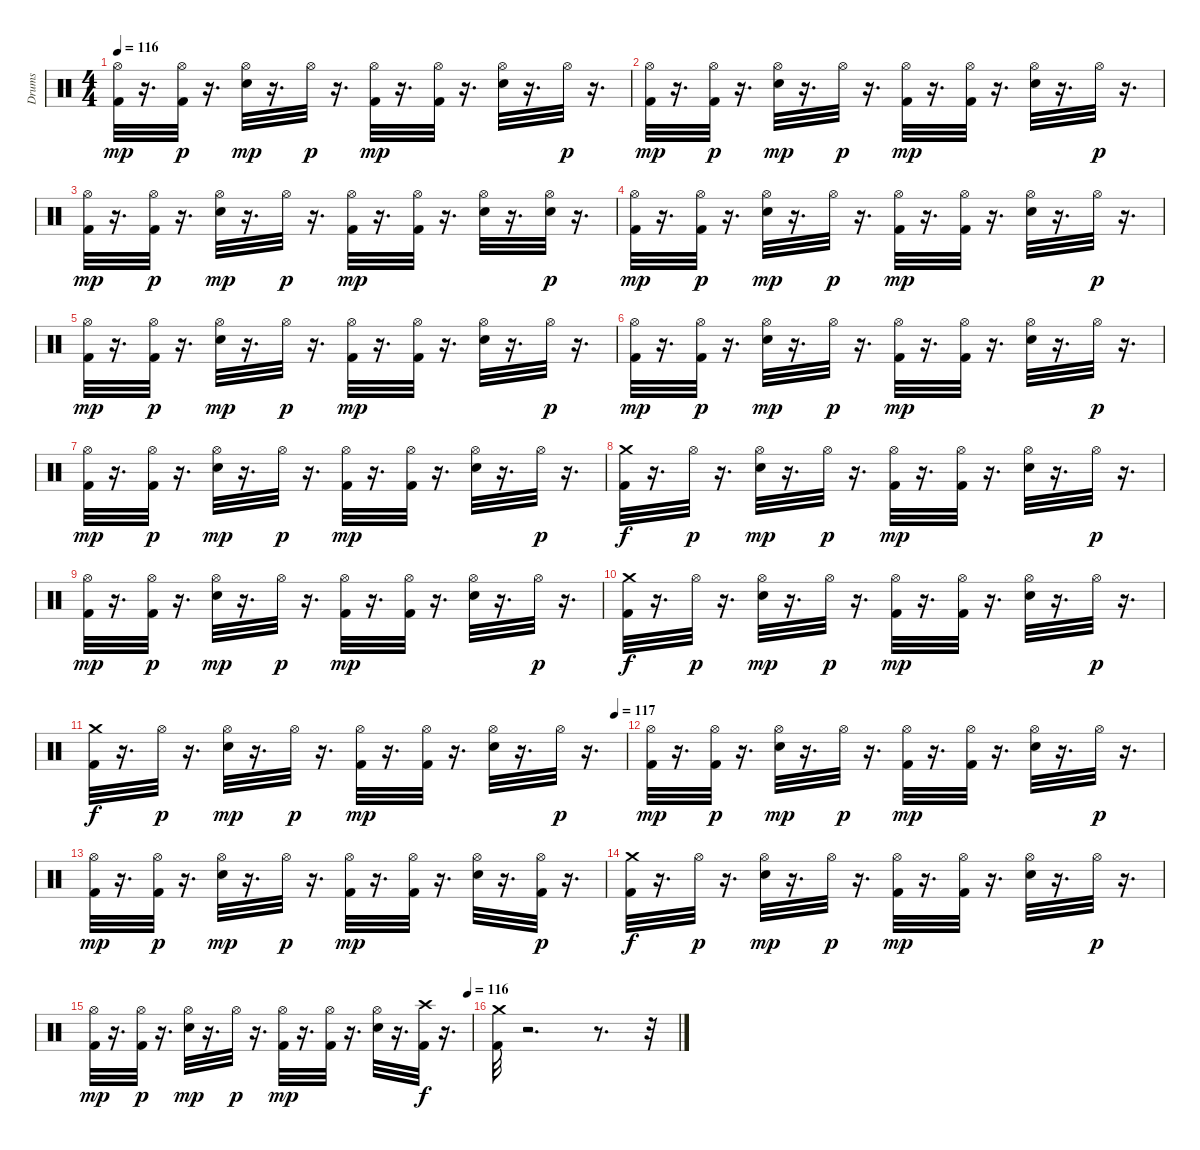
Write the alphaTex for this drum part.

\track ("Drums" "Drums") {instrument percussion}
\staff {score}
\articulation defaults
\ts (4 4)
\tempo 116
\clef neutral
\ks c
("Kick (hit) 2" "Hi-Hat (open)").32{dy mp} r.16{d} ("Kick (hit) 2" "Hi-Hat (open)").32{dy p} r.16{d} ("Hi-Hat (open)" "Snare (hit) 2").32{dy mp} r.16{d} "Hi-Hat (open)".32{dy p} r.16{d} ("Kick (hit) 2" "Hi-Hat (open)").32{dy mp} r.16{d} ("Hi-Hat (open)" "Kick (hit) 2").32 r.16{d} ("Snare (hit) 2" "Hi-Hat (open)").32 r.16{d} "Hi-Hat (open)".32{dy p} r.16{d} |
("Kick (hit) 2" "Hi-Hat (open)").32{dy mp} r.16{d} ("Kick (hit) 2" "Hi-Hat (open)").32{dy p} r.16{d} ("Hi-Hat (open)" "Snare (hit) 2").32{dy mp} r.16{d} "Hi-Hat (open)".32{dy p} r.16{d} ("Kick (hit) 2" "Hi-Hat (open)").32{dy mp} r.16{d} ("Hi-Hat (open)" "Kick (hit) 2").32 r.16{d} ("Snare (hit) 2" "Hi-Hat (open)").32 r.16{d} "Hi-Hat (open)".32{dy p} r.16{d} |
("Kick (hit) 2" "Hi-Hat (open)").32{dy mp} r.16{d} ("Kick (hit) 2" "Hi-Hat (open)").32{dy p} r.16{d} ("Hi-Hat (open)" "Snare (hit) 2").32{dy mp} r.16{d} "Hi-Hat (open)".32{dy p} r.16{d} ("Kick (hit) 2" "Hi-Hat (open)").32{dy mp} r.16{d} ("Hi-Hat (open)" "Kick (hit) 2").32 r.16{d} ("Snare (hit) 2" "Hi-Hat (open)").32 r.16{d} ("Hi-Hat (open)" "Snare (hit) 2").32{dy p} r.16{d} |
("Kick (hit) 2" "Hi-Hat (open)").32{dy mp} r.16{d} ("Kick (hit) 2" "Hi-Hat (open)").32{dy p} r.16{d} ("Hi-Hat (open)" "Snare (hit) 2").32{dy mp} r.16{d} "Hi-Hat (open)".32{dy p} r.16{d} ("Kick (hit) 2" "Hi-Hat (open)").32{dy mp} r.16{d} ("Hi-Hat (open)" "Kick (hit) 2").32 r.16{d} ("Snare (hit) 2" "Hi-Hat (open)").32 r.16{d} "Hi-Hat (open)".32{dy p} r.16{d} |
("Kick (hit) 2" "Hi-Hat (open)").32{dy mp} r.16{d} ("Kick (hit) 2" "Hi-Hat (open)").32{dy p} r.16{d} ("Hi-Hat (open)" "Snare (hit) 2").32{dy mp} r.16{d} "Hi-Hat (open)".32{dy p} r.16{d} ("Kick (hit) 2" "Hi-Hat (open)").32{dy mp} r.16{d} ("Hi-Hat (open)" "Kick (hit) 2").32 r.16{d} ("Snare (hit) 2" "Hi-Hat (open)").32 r.16{d} "Hi-Hat (open)".32{dy p} r.16{d} |
("Kick (hit) 2" "Hi-Hat (open)").32{dy mp} r.16{d} ("Kick (hit) 2" "Hi-Hat (open)").32{dy p} r.16{d} ("Hi-Hat (open)" "Snare (hit) 2").32{dy mp} r.16{d} "Hi-Hat (open)".32{dy p} r.16{d} ("Kick (hit) 2" "Hi-Hat (open)").32{dy mp} r.16{d} ("Hi-Hat (open)" "Kick (hit) 2").32 r.16{d} ("Snare (hit) 2" "Hi-Hat (open)").32 r.16{d} "Hi-Hat (open)".32{dy p} r.16{d} |
("Kick (hit) 2" "Hi-Hat (open)").32{dy mp} r.16{d} ("Kick (hit) 2" "Hi-Hat (open)").32{dy p} r.16{d} ("Hi-Hat (open)" "Snare (hit) 2").32{dy mp} r.16{d} "Hi-Hat (open)".32{dy p} r.16{d} ("Kick (hit) 2" "Hi-Hat (open)").32{dy mp} r.16{d} ("Hi-Hat (open)" "Kick (hit) 2").32 r.16{d} ("Snare (hit) 2" "Hi-Hat (open)").32 r.16{d} "Hi-Hat (open)".32{dy p} r.16{d} |
("Crash medium (hit)" "Kick (hit) 2").32{dy f} r.16{d} "Hi-Hat (open)".32{dy p} r.16{d} ("Hi-Hat (open)" "Snare (hit) 2").32{dy mp} r.16{d} "Hi-Hat (open)".32{dy p} r.16{d} ("Kick (hit) 2" "Hi-Hat (open)").32{dy mp} r.16{d} ("Hi-Hat (open)" "Kick (hit) 2").32 r.16{d} ("Snare (hit) 2" "Hi-Hat (open)").32 r.16{d} "Hi-Hat (open)".32{dy p} r.16{d} |
("Kick (hit) 2" "Hi-Hat (open)").32{dy mp} r.16{d} ("Kick (hit) 2" "Hi-Hat (open)").32{dy p} r.16{d} ("Hi-Hat (open)" "Snare (hit) 2").32{dy mp} r.16{d} "Hi-Hat (open)".32{dy p} r.16{d} ("Kick (hit) 2" "Hi-Hat (open)").32{dy mp} r.16{d} ("Hi-Hat (open)" "Kick (hit) 2").32 r.16{d} ("Snare (hit) 2" "Hi-Hat (open)").32 r.16{d} "Hi-Hat (open)".32{dy p} r.16{d} |
("Crash medium (hit)" "Kick (hit) 2").32{dy f} r.16{d} "Hi-Hat (open)".32{dy p} r.16{d} ("Hi-Hat (open)" "Snare (hit) 2").32{dy mp} r.16{d} "Hi-Hat (open)".32{dy p} r.16{d} ("Kick (hit) 2" "Hi-Hat (open)").32{dy mp} r.16{d} ("Hi-Hat (open)" "Kick (hit) 2").32 r.16{d} ("Snare (hit) 2" "Hi-Hat (open)").32 r.16{d} "Hi-Hat (open)".32{dy p} r.16{d} |
\tempo (117 0.9791666666666666)
("Crash medium (hit)" "Kick (hit) 2").32{dy f} r.16{d} "Hi-Hat (open)".32{dy p} r.16{d} ("Hi-Hat (open)" "Snare (hit) 2").32{dy mp} r.16{d} "Hi-Hat (open)".32{dy p} r.16{d} ("Kick (hit) 2" "Hi-Hat (open)").32{dy mp} r.16{d} ("Hi-Hat (open)" "Kick (hit) 2").32 r.16{d} ("Snare (hit) 2" "Hi-Hat (open)").32 r.16{d} "Hi-Hat (open)".32{dy p} r.16{d} |
("Kick (hit) 2" "Hi-Hat (open)").32{dy mp} r.16{d} ("Kick (hit) 2" "Hi-Hat (open)").32{dy p} r.16{d} ("Hi-Hat (open)" "Snare (hit) 2").32{dy mp} r.16{d} "Hi-Hat (open)".32{dy p} r.16{d} ("Kick (hit) 2" "Hi-Hat (open)").32{dy mp} r.16{d} ("Hi-Hat (open)" "Kick (hit) 2").32 r.16{d} ("Snare (hit) 2" "Hi-Hat (open)").32 r.16{d} "Hi-Hat (open)".32{dy p} r.16{d} |
("Kick (hit) 2" "Hi-Hat (open)").32{dy mp} r.16{d} ("Kick (hit) 2" "Hi-Hat (open)").32{dy p} r.16{d} ("Hi-Hat (open)" "Snare (hit) 2").32{dy mp} r.16{d} "Hi-Hat (open)".32{dy p} r.16{d} ("Kick (hit) 2" "Hi-Hat (open)").32{dy mp} r.16{d} ("Hi-Hat (open)" "Kick (hit) 2").32 r.16{d} ("Snare (hit) 2" "Hi-Hat (open)").32 r.16{d} ("Kick (hit) 2" "Hi-Hat (open)").32{dy p} r.16{d} |
("Crash medium (hit)" "Kick (hit) 2").32{dy f} r.16{d} "Hi-Hat (open)".32{dy p} r.16{d} ("Hi-Hat (open)" "Snare (hit) 2").32{dy mp} r.16{d} "Hi-Hat (open)".32{dy p} r.16{d} ("Kick (hit) 2" "Hi-Hat (open)").32{dy mp} r.16{d} ("Hi-Hat (open)" "Kick (hit) 2").32 r.16{d} ("Snare (hit) 2" "Hi-Hat (open)").32 r.16{d} "Hi-Hat (open)".32{dy p} r.16{d} |
\tempo (116 0.9895833333333334)
("Kick (hit) 2" "Hi-Hat (open)").32{dy mp} r.16{d} ("Kick (hit) 2" "Hi-Hat (open)").32{dy p} r.16{d} ("Hi-Hat (open)" "Snare (hit) 2").32{dy mp} r.16{d} "Hi-Hat (open)".32{dy p} r.16{d} ("Kick (hit) 2" "Hi-Hat (open)").32{dy mp} r.16{d} ("Hi-Hat (open)" "Kick (hit) 2").32 r.16{d} ("Snare (hit) 2" "Hi-Hat (open)").32 r.16{d} ("Crash high (hit)" "Kick (hit) 2").32{dy f} r.16{d} |
("Crash medium (hit)" "Kick (hit) 2").32 r.2{d} r.8{d} r.32
